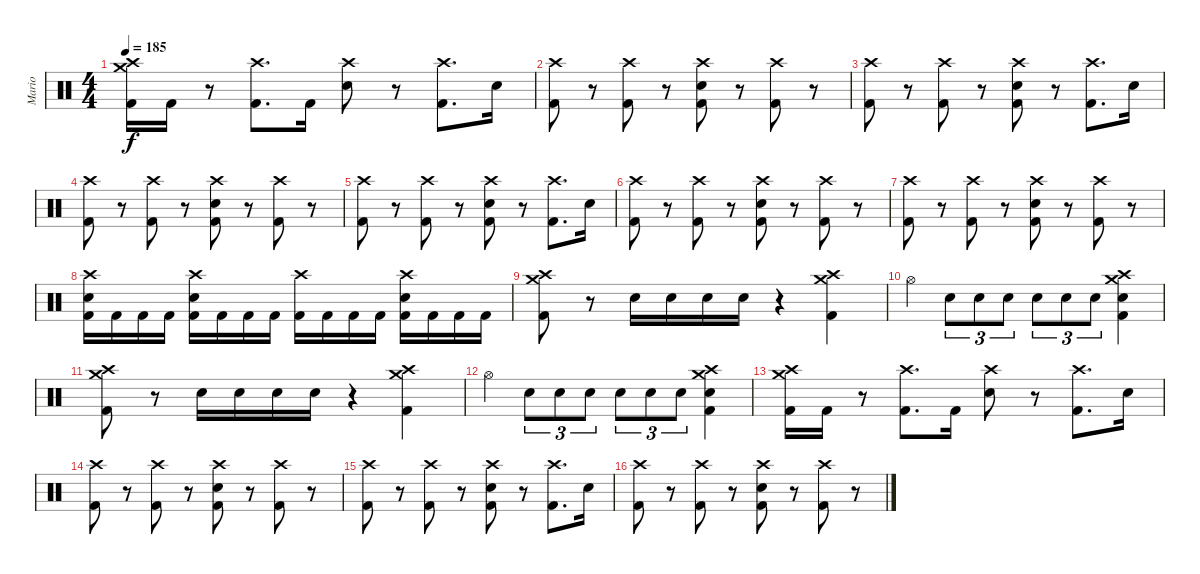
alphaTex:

\track ("Mario" "Mario") {instrument percussion}
\staff {score}
\articulation defaults
\ts (4 4)
\tempo 185
\clef neutral
\ks c
("Crash high (hit)" "Crash medium (hit)" "Kick (hit) 2").16{dy f} "Kick (hit) 2".16 r.8 ("Crash high (hit)" "Kick (hit) 2").8{d} "Kick (hit) 2".16 ("Crash high (hit)" "Electric Snare (hit)").8 r.8 ("Crash high (hit)" "Kick (hit) 2").8{d} "Electric Snare (hit)".16 |
("Crash high (hit)" "Kick (hit) 2").8 r.8 ("Crash high (hit)" "Kick (hit) 2").8 r.8 ("Crash high (hit)" "Electric Snare (hit)" "Kick (hit) 2").8 r.8 ("Crash high (hit)" "Kick (hit) 2").8 r.8 |
("Crash high (hit)" "Kick (hit) 2").8 r.8 ("Crash high (hit)" "Kick (hit) 2").8 r.8 ("Crash high (hit)" "Electric Snare (hit)" "Kick (hit) 2").8 r.8 ("Crash high (hit)" "Kick (hit) 2").8{d} "Electric Snare (hit)".16 |
("Crash high (hit)" "Kick (hit) 2").8 r.8 ("Crash high (hit)" "Kick (hit) 2").8 r.8 ("Crash high (hit)" "Electric Snare (hit)" "Kick (hit) 2").8 r.8 ("Crash high (hit)" "Kick (hit) 2").8 r.8 |
("Crash high (hit)" "Kick (hit) 2").8 r.8 ("Crash high (hit)" "Kick (hit) 2").8 r.8 ("Crash high (hit)" "Electric Snare (hit)" "Kick (hit) 2").8 r.8 ("Crash high (hit)" "Kick (hit) 2").8{d} "Electric Snare (hit)".16 |
("Crash high (hit)" "Kick (hit) 2").8 r.8 ("Crash high (hit)" "Kick (hit) 2").8 r.8 ("Crash high (hit)" "Electric Snare (hit)" "Kick (hit) 2").8 r.8 ("Crash high (hit)" "Kick (hit) 2").8 r.8 |
("Crash high (hit)" "Kick (hit) 2").8 r.8 ("Crash high (hit)" "Kick (hit) 2").8 r.8 ("Crash high (hit)" "Electric Snare (hit)" "Kick (hit) 2").8 r.8 ("Crash high (hit)" "Kick (hit) 2").8 r.8 |
("Crash high (hit)" "Electric Snare (hit)" "Kick (hit) 2").16 "Kick (hit) 2".16 "Kick (hit) 2".16 "Kick (hit) 2".16 ("Crash high (hit)" "Electric Snare (hit)" "Kick (hit) 2").16 "Kick (hit) 2".16 "Kick (hit) 2".16 "Kick (hit) 2".16 ("Crash high (hit)" "Kick (hit) 2").16 "Kick (hit) 2".16 "Kick (hit) 2".16 "Kick (hit) 2".16 ("Crash high (hit)" "Electric Snare (hit)" "Kick (hit) 2").16 "Kick (hit) 2".16 "Kick (hit) 2".16 "Kick (hit) 2".16 |
("Crash high (hit)" "Crash medium (hit)" "Kick (hit) 2").8 r.8 "Electric Snare (hit)".16 "Electric Snare (hit)".16 "Electric Snare (hit)".16 "Electric Snare (hit)".16 r.4 ("Crash high (hit)" "Crash medium (hit)" "Kick (hit) 2").4 |
"Hi-Hat (open)".4 "Electric Snare (hit)".8{tu (3 2)} "Electric Snare (hit)".8{tu (3 2)} "Electric Snare (hit)".8{tu (3 2)} "Electric Snare (hit)".8{tu (3 2)} "Electric Snare (hit)".8{tu (3 2)} "Electric Snare (hit)".8{tu (3 2)} ("Crash high (hit)" "Crash medium (hit)" "Electric Snare (hit)" "Kick (hit) 2").4 |
("Crash high (hit)" "Crash medium (hit)" "Kick (hit) 2").8 r.8 "Electric Snare (hit)".16 "Electric Snare (hit)".16 "Electric Snare (hit)".16 "Electric Snare (hit)".16 r.4 ("Crash high (hit)" "Crash medium (hit)" "Kick (hit) 2").4 |
"Hi-Hat (open)".4 "Electric Snare (hit)".8{tu (3 2)} "Electric Snare (hit)".8{tu (3 2)} "Electric Snare (hit)".8{tu (3 2)} "Electric Snare (hit)".8{tu (3 2)} "Electric Snare (hit)".8{tu (3 2)} "Electric Snare (hit)".8{tu (3 2)} ("Crash high (hit)" "Crash medium (hit)" "Electric Snare (hit)" "Kick (hit) 2").4 |
("Crash high (hit)" "Crash medium (hit)" "Kick (hit) 2").16 "Kick (hit) 2".16 r.8 ("Crash high (hit)" "Kick (hit) 2").8{d} "Kick (hit) 2".16 ("Crash high (hit)" "Electric Snare (hit)").8 r.8 ("Crash high (hit)" "Kick (hit) 2").8{d} "Electric Snare (hit)".16 |
("Crash high (hit)" "Kick (hit) 2").8 r.8 ("Crash high (hit)" "Kick (hit) 2").8 r.8 ("Crash high (hit)" "Electric Snare (hit)" "Kick (hit) 2").8 r.8 ("Crash high (hit)" "Kick (hit) 2").8 r.8 |
("Crash high (hit)" "Kick (hit) 2").8 r.8 ("Crash high (hit)" "Kick (hit) 2").8 r.8 ("Crash high (hit)" "Electric Snare (hit)" "Kick (hit) 2").8 r.8 ("Crash high (hit)" "Kick (hit) 2").8{d} "Electric Snare (hit)".16 |
("Crash high (hit)" "Kick (hit) 2").8 r.8 ("Crash high (hit)" "Kick (hit) 2").8 r.8 ("Crash high (hit)" "Electric Snare (hit)" "Kick (hit) 2").8 r.8 ("Crash high (hit)" "Kick (hit) 2").8 r.8
